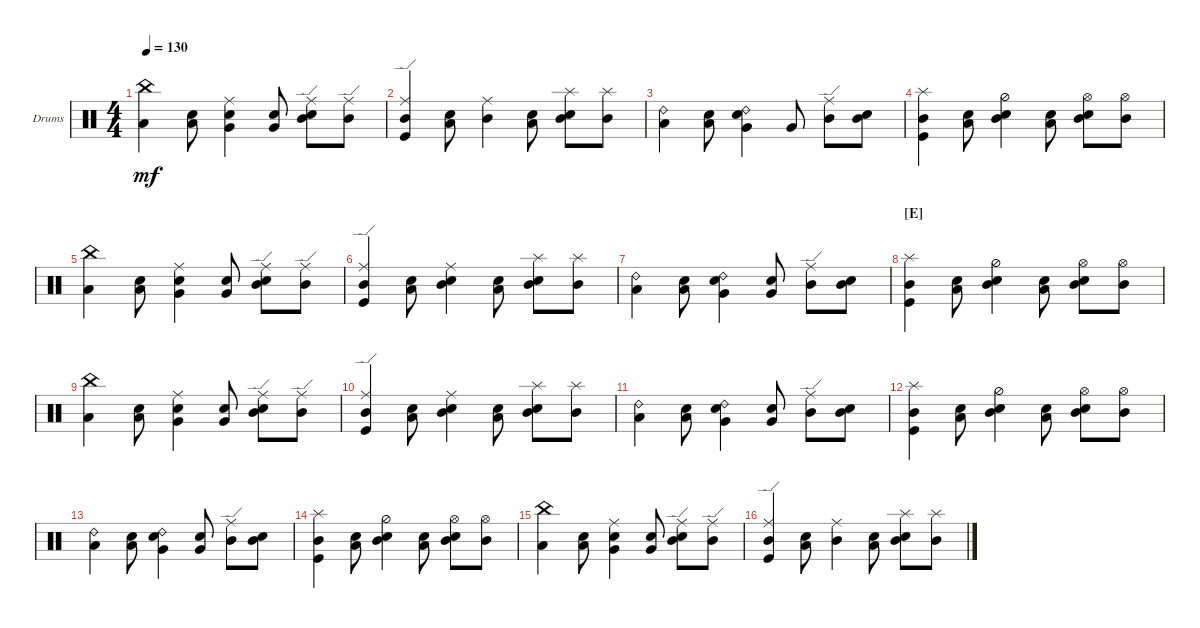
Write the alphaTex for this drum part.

\defaultSystemsLayout 4
\bracketExtendMode groupsimilarinstruments
\firstSystemTrackNameOrientation horizontal
\otherSystemsTrackNameOrientation horizontal
\track ("Drumkit" "Drums") {instrument percussion}
\staff {score}
\articulation defaults
\ts (4 4)
\tempo 130
\clef neutral
\ks c
("Low Tom (hit)" "China (hit)").4{dy mf} ("Low Tom (hit)" "Snare (hit) 2").8 ("Very Low Tom (hit)" "Snare (hit) 2" "Ride (middle)").4 ("Very Low Tom (hit)" "Snare (hit) 2").8 ("Mid Tom (hit)" "Snare (hit) 2" "Ride (edge)").8 ("Mid Tom (hit)" "Ride (edge)").8 |
("Mid Tom (hit)" "Kick (hit)" "Ride (edge)").4 ("Low Tom (hit)" "Snare (hit) 2").8 ("Mid Tom (hit)" "Ride (middle)").4 ("Low Tom (hit)" "Snare (hit) 2").8 ("Mid Tom (hit)" "Snare (hit) 2" "Splash (hit)").8 ("Mid Tom (hit)" "Splash (hit)").8 |
("Low Tom (hit)" "Ride (bell) 2").4 ("Low Tom (hit)" "Snare (hit) 2").8 ("Very Low Tom (hit)" "Snare (hit) 2" "Ride (bell) 2").4 "Very Low Tom (hit)".8 ("Mid Tom (hit)" "Ride (edge)").8 ("Mid Tom (hit)" "Snare (hit) 2").8 |
("Mid Tom (hit)" "Kick (hit)" "Splash (hit)").4 ("Low Tom (hit)" "Snare (hit) 2").8 ("Mid Tom (hit)" "Snare (hit) 2" "Hi-Hat (half)").4 ("Low Tom (hit)" "Snare (hit) 2").8 ("Mid Tom (hit)" "Snare (hit) 2" "Hi-Hat (open)").8 ("Mid Tom (hit)" "Hi-Hat (open)").8 |
("Low Tom (hit)" "China (hit)").4 ("Low Tom (hit)" "Snare (hit) 2").8 ("Very Low Tom (hit)" "Snare (hit) 2" "Ride (middle)").4 ("Very Low Tom (hit)" "Snare (hit) 2").8 ("Mid Tom (hit)" "Snare (hit) 2" "Ride (edge)").8 ("Mid Tom (hit)" "Ride (edge)").8 |
("Mid Tom (hit)" "Kick (hit)" "Ride (edge)").4 ("Low Tom (hit)" "Snare (hit) 2").8 ("Mid Tom (hit)" "Snare (hit) 2" "Ride (middle)").4 ("Low Tom (hit)" "Snare (hit) 2").8 ("Mid Tom (hit)" "Snare (hit) 2" "Splash (hit)").8 ("Mid Tom (hit)" "Splash (hit)").8 |
("Low Tom (hit)" "Ride (bell) 2").4 ("Low Tom (hit)" "Snare (hit) 2").8 ("Very Low Tom (hit)" "Snare (hit) 2" "Ride (bell) 2").4 ("Very Low Tom (hit)" "Snare (hit) 2").8 ("Mid Tom (hit)" "Ride (edge)").8 ("Mid Tom (hit)" "Snare (hit) 2").8 |
\section ("E" "")
("Mid Tom (hit)" "Kick (hit)" "Splash (hit)").4 ("Low Tom (hit)" "Snare (hit) 2").8 ("Mid Tom (hit)" "Snare (hit) 2" "Hi-Hat (half)").4 ("Low Tom (hit)" "Snare (hit) 2").8 ("Mid Tom (hit)" "Snare (hit) 2" "Hi-Hat (open)").8 ("Mid Tom (hit)" "Hi-Hat (open)").8 |
("Low Tom (hit)" "China (hit)").4 ("Low Tom (hit)" "Snare (hit) 2").8 ("Very Low Tom (hit)" "Snare (hit) 2" "Ride (middle)").4 ("Very Low Tom (hit)" "Snare (hit) 2").8 ("Mid Tom (hit)" "Snare (hit) 2" "Ride (edge)").8 ("Mid Tom (hit)" "Ride (edge)").8 |
("Mid Tom (hit)" "Kick (hit)" "Ride (edge)").4 ("Low Tom (hit)" "Snare (hit) 2").8 ("Mid Tom (hit)" "Snare (hit) 2" "Ride (middle)").4 ("Low Tom (hit)" "Snare (hit) 2").8 ("Mid Tom (hit)" "Snare (hit) 2" "Splash (hit)").8 ("Mid Tom (hit)" "Splash (hit)").8 |
("Low Tom (hit)" "Ride (bell) 2").4 ("Low Tom (hit)" "Snare (hit) 2").8 ("Very Low Tom (hit)" "Snare (hit) 2" "Ride (bell) 2").4 ("Very Low Tom (hit)" "Snare (hit) 2").8 ("Mid Tom (hit)" "Ride (edge)").8 ("Mid Tom (hit)" "Snare (hit) 2").8 |
("Mid Tom (hit)" "Kick (hit)" "Splash (hit)").4 ("Low Tom (hit)" "Snare (hit) 2").8 ("Mid Tom (hit)" "Snare (hit) 2" "Hi-Hat (half)").4 ("Low Tom (hit)" "Snare (hit) 2").8 ("Mid Tom (hit)" "Snare (hit) 2" "Hi-Hat (open)").8 ("Mid Tom (hit)" "Hi-Hat (open)").8 |
("Low Tom (hit)" "Ride (bell) 2").4 ("Low Tom (hit)" "Snare (hit) 2").8 ("Very Low Tom (hit)" "Snare (hit) 2" "Ride (bell) 2").4 ("Very Low Tom (hit)" "Snare (hit) 2").8 ("Mid Tom (hit)" "Ride (edge)").8 ("Mid Tom (hit)" "Snare (hit) 2").8 |
("Mid Tom (hit)" "Kick (hit)" "Splash (hit)").4 ("Low Tom (hit)" "Snare (hit) 2").8 ("Mid Tom (hit)" "Snare (hit) 2" "Hi-Hat (half)").4 ("Low Tom (hit)" "Snare (hit) 2").8 ("Mid Tom (hit)" "Snare (hit) 2" "Hi-Hat (open)").8 ("Mid Tom (hit)" "Hi-Hat (open)").8 |
("Low Tom (hit)" "China (hit)").4 ("Low Tom (hit)" "Snare (hit) 2").8 ("Very Low Tom (hit)" "Snare (hit) 2" "Ride (middle)").4 ("Very Low Tom (hit)" "Snare (hit) 2").8 ("Mid Tom (hit)" "Snare (hit) 2" "Ride (edge)").8 ("Mid Tom (hit)" "Ride (edge)").8 |
("Mid Tom (hit)" "Kick (hit)" "Ride (edge)").4 ("Low Tom (hit)" "Snare (hit) 2").8 ("Mid Tom (hit)" "Ride (middle)").4 ("Low Tom (hit)" "Snare (hit) 2").8 ("Mid Tom (hit)" "Snare (hit) 2" "Splash (hit)").8 ("Mid Tom (hit)" "Splash (hit)").8
